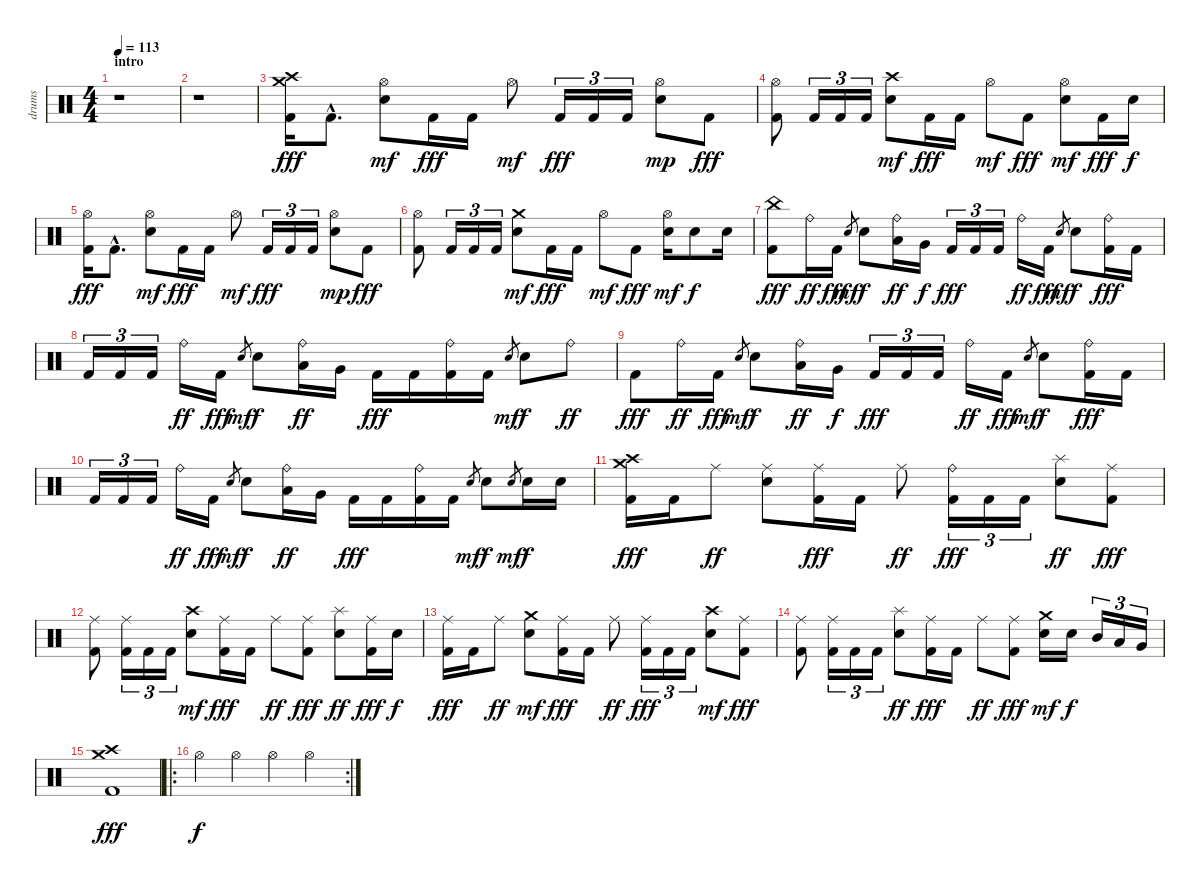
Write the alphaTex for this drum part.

\track ("drums" "drums") {instrument percussion}
\staff {score}
\articulation defaults
\ts (4 4)
\section ("" "intro")
\tempo 113
\clef neutral
\ks c
r.1{dy fff} |
r.1 |
("Crash medium (hit)" "Crash high (hit)" "Kick (hit) 2").16 "Kick (hit) 2"{hac}.8{d} ("Hi-Hat (open)" "Electric Snare (hit)").8{dy mf} "Kick (hit) 2".16{dy fff} "Kick (hit) 2".16 "Hi-Hat (open)".8{dy mf} "Kick (hit) 2".16{tu (3 2) dy fff} "Kick (hit) 2".16{tu (3 2)} "Kick (hit) 2".16{tu (3 2)} ("Hi-Hat (open)" "Electric Snare (hit)").8{dy mp} "Kick (hit) 2".8{dy fff} |
("Hi-Hat (open)" "Kick (hit) 2").8 "Kick (hit) 2".16{tu (3 2)} "Kick (hit) 2".16{tu (3 2)} "Kick (hit) 2".16{tu (3 2)} ("Crash high (hit)" "Electric Snare (hit)").8{dy mf} "Kick (hit) 2".16{dy fff} "Kick (hit) 2".16 "Hi-Hat (open)".8{dy mf} "Kick (hit) 2".8{dy fff} ("Hi-Hat (open)" "Electric Snare (hit)").8{dy mf} "Kick (hit) 2".16{dy fff} "Electric Snare (hit)".16{dy f} |
("Hi-Hat (open)" "Kick (hit) 2").16{dy fff} "Kick (hit) 2"{hac}.8{d} ("Hi-Hat (open)" "Electric Snare (hit)").8{dy mf} "Kick (hit) 2".16{dy fff} "Kick (hit) 2".16 "Hi-Hat (open)".8{dy mf} "Kick (hit) 2".16{tu (3 2) dy fff} "Kick (hit) 2".16{tu (3 2)} "Kick (hit) 2".16{tu (3 2)} ("Hi-Hat (open)" "Electric Snare (hit)").8{dy mp} "Kick (hit) 2".8{dy fff} |
("Hi-Hat (open)" "Kick (hit) 2").8 "Kick (hit) 2".16{tu (3 2)} "Kick (hit) 2".16{tu (3 2)} "Kick (hit) 2".16{tu (3 2)} ("Crash medium (hit)" "Electric Snare (hit)").8{dy mf} "Kick (hit) 2".16{dy fff} "Kick (hit) 2".16 "Hi-Hat (open)".8{dy mf} "Kick (hit) 2".8{dy fff} ("Hi-Hat (open)" "Electric Snare (hit)").16{dy mf} "Electric Snare (hit)".8{dy f} "Electric Snare (hit)".16 |
("China (hit)" "Kick (hit) 2").8{dy fff} "Ride (bell)".16{dy ff} "Kick (hit) 2".16{dy fff} "Electric Snare (hit)".8{gr dy mf} "Electric Snare (hit)".8{dy f} ("Ride (bell)" "Low Tom (hit)").16{dy ff} "Very Low Tom (hit)".16{dy f} "Kick (hit) 2".16{tu (3 2) dy fff} "Kick (hit) 2".16{tu (3 2)} "Kick (hit) 2".16{tu (3 2)} "Ride (bell)".16{dy ff} "Kick (hit) 2".16{dy fff} "Electric Snare (hit)".8{gr dy mf} "Electric Snare (hit)".8{dy f} ("Ride (bell)" "Kick (hit) 2").16{dy fff} "Kick (hit) 2".16 |
"Kick (hit) 2".16{tu (3 2)} "Kick (hit) 2".16{tu (3 2)} "Kick (hit) 2".16{tu (3 2)} "Ride (bell)".16{dy ff} "Kick (hit) 2".16{dy fff} "Electric Snare (hit)".8{gr dy mf} "Electric Snare (hit)".8{dy f} ("Ride (bell)" "Low Tom (hit)").16{dy ff} "Very Low Tom (hit)".16 "Kick (hit) 2".16{dy fff} "Kick (hit) 2".16 ("Ride (bell)" "Kick (hit) 2").16 "Kick (hit) 2".16 "Electric Snare (hit)".8{gr dy mf} "Electric Snare (hit)".8{dy f} "Ride (bell)".8{dy ff} |
"Kick (hit) 2".8{dy fff} "Ride (bell)".16{dy ff} "Kick (hit) 2".16{dy fff} "Electric Snare (hit)".8{gr dy mf} "Electric Snare (hit)".8{dy f} ("Ride (bell)" "Low Tom (hit)").16{dy ff} "Very Low Tom (hit)".16{dy f} "Kick (hit) 2".16{tu (3 2) dy fff} "Kick (hit) 2".16{tu (3 2)} "Kick (hit) 2".16{tu (3 2)} "Ride (bell)".16{dy ff} "Kick (hit) 2".16{dy fff} "Electric Snare (hit)".8{gr dy mf} "Electric Snare (hit)".8{dy f} ("Ride (bell)" "Kick (hit) 2").16{dy fff} "Kick (hit) 2".16 |
"Kick (hit) 2".16{tu (3 2)} "Kick (hit) 2".16{tu (3 2)} "Kick (hit) 2".16{tu (3 2)} "Ride (bell)".16{dy ff} "Kick (hit) 2".16{dy fff} "Electric Snare (hit)".8{gr dy mf} "Electric Snare (hit)".8{dy f} ("Ride (bell)" "Low Tom (hit)").16{dy ff} "Very Low Tom (hit)".16 "Kick (hit) 2".16{dy fff} "Kick (hit) 2".16 ("Ride (bell)" "Kick (hit) 2").16 "Kick (hit) 2".16 "Electric Snare (hit)".8{gr dy mf} "Electric Snare (hit)".8{dy f} "Electric Snare (hit)".8{gr dy mf} "Electric Snare (hit)".16{dy f} "Electric Snare (hit)".16 |
("Crash medium (hit)" "Crash high (hit)" "Kick (hit) 2").16{dy fff} "Kick (hit) 2".16 "Ride (middle)".8{dy ff} ("Ride (middle)" "Electric Snare (hit)").8 ("Ride (middle)" "Kick (hit) 2").16{dy fff} "Kick (hit) 2".16 "Ride (middle)".8{dy ff} ("Ride (bell)" "Kick (hit) 2").16{tu (3 2) dy fff} "Kick (hit) 2".16{tu (3 2)} "Kick (hit) 2".16{tu (3 2)} ("Splash (hit)" "Electric Snare (hit)").8{dy ff} ("Ride (middle)" "Kick (hit) 2").8{dy fff} |
("Ride (middle)" "Kick (hit) 2").8 ("Ride (middle)" "Kick (hit) 2").16{tu (3 2)} "Kick (hit) 2".16{tu (3 2)} "Kick (hit) 2".16{tu (3 2)} ("Crash high (hit)" "Electric Snare (hit)").8{dy mf} ("Ride (middle)" "Kick (hit) 2").16{dy fff} "Kick (hit) 2".16 "Ride (middle)".8{dy ff} ("Ride (middle)" "Kick (hit) 2").8{dy fff} ("Splash (hit)" "Electric Snare (hit)").8{dy ff} ("Ride (middle)" "Kick (hit) 2").16{dy fff} "Electric Snare (hit)".16{dy f} |
("Ride (middle)" "Kick (hit) 2").16{dy fff} "Kick (hit) 2".16 "Ride (middle)".8{dy ff} ("Crash medium (hit)" "Electric Snare (hit)").8{dy mf} ("Ride (middle)" "Kick (hit) 2").16{dy fff} "Kick (hit) 2".16 "Ride (middle)".8{dy ff} ("Ride (middle)" "Kick (hit) 2").16{tu (3 2) dy fff} "Kick (hit) 2".16{tu (3 2)} "Kick (hit) 2".16{tu (3 2)} ("Crash high (hit)" "Electric Snare (hit)").8{dy mf} ("Ride (middle)" "Kick (hit) 2").8{dy fff} |
("Ride (middle)" "Kick (hit) 2").8 ("Ride (middle)" "Kick (hit) 2").16{tu (3 2)} "Kick (hit) 2".16{tu (3 2)} "Kick (hit) 2".16{tu (3 2)} ("Splash (hit)" "Electric Snare (hit)").8{dy ff} ("Ride (middle)" "Kick (hit) 2").16{dy fff} "Kick (hit) 2".16 "Ride (middle)".8{dy ff} ("Ride (middle)" "Kick (hit) 2").8{dy fff} ("Crash medium (hit)" "Electric Snare (hit)").16{dy mf} "Electric Snare (hit)".16{dy f} "Mid Tom (hit)".16{tu (3 2)} "Low Tom (hit)".16{tu (3 2)} "Very Low Tom (hit)".16{tu (3 2)} |
("Crash medium (hit)" "Crash high (hit)" "Kick (hit) 2").1{dy fff} |
\ro
\rc 2
\section ("" "")
"Hi-Hat (open)".4{dy f} "Hi-Hat (open)".4 "Hi-Hat (open)".4 "Hi-Hat (open)".4
